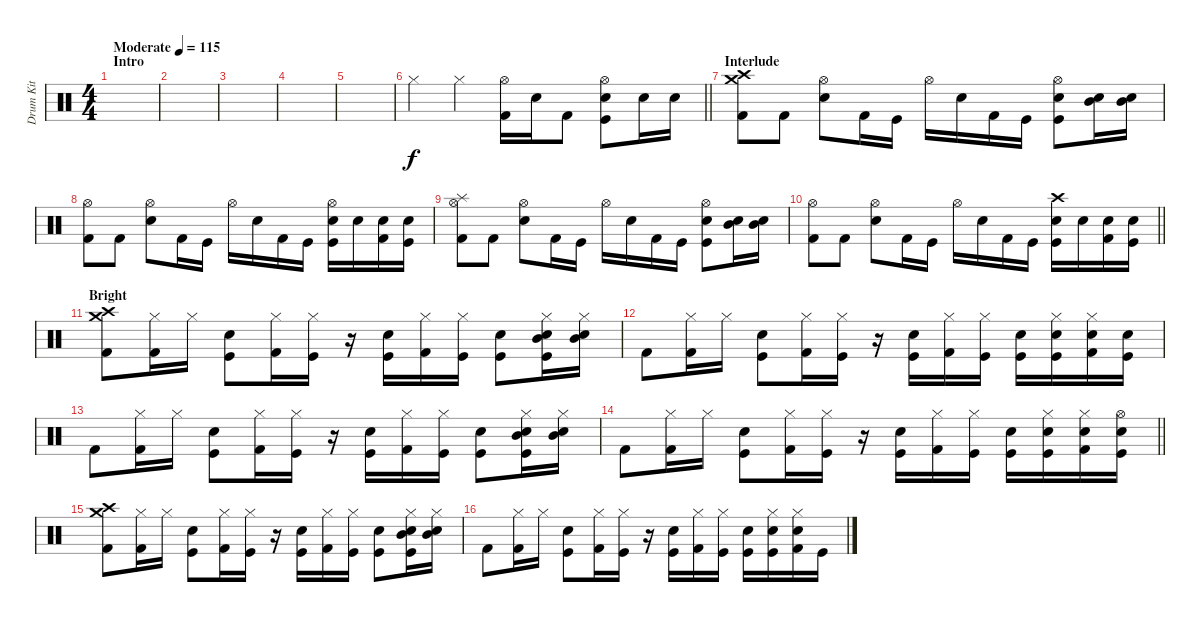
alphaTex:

\track ("Drum Kit " "Drum Kit ") {instrument percussion}
\staff {score}
\articulation defaults
\ts (4 4)
\section ("" "Intro ")
\tempo (115 "Moderate")
\clef neutral
\ks c
|
|
|
|
|
\barLineRight lightlight "Hi-Hat (closed)".4 "Hi-Hat (closed)".4
("Hi-Hat (open)" "Kick (hit) 2").16 "Electric Snare (hit)".16 "Kick (hit) 2".8 ("Hi-Hat (open)" "Snare (hit) 2" "Kick (hit)").8 "Electric Snare (hit)".16 "Electric Snare (hit)".16 |
\section ("" "Interlude ")
("Crash high (hit)" "Crash medium (hit)" "Kick (hit) 2").8 "Kick (hit) 2".8 ("Hi-Hat (open)" "Electric Snare (hit)").8 "Kick (hit) 2".16 "Kick (hit)".16 "Hi-Hat (open)".16 "Electric Snare (hit)".16 "Kick (hit) 2".16 "Kick (hit)".16 ("Hi-Hat (open)" "Snare (hit) 2" "Kick (hit)").8 ("Mid Tom (hit)" "Electric Snare (hit)").16 ("Mid Tom (hit)" "Electric Snare (hit)").16 |
("Hi-Hat (open)" "Kick (hit) 2").8 "Kick (hit) 2".8 ("Hi-Hat (open)" "Electric Snare (hit)").8 "Kick (hit) 2".16 "Kick (hit)".16 "Hi-Hat (open)".16 "Electric Snare (hit)".16 "Kick (hit) 2".16 "Kick (hit)".16 ("Hi-Hat (open)" "Electric Snare (hit)" "Kick (hit)").16 "Electric Snare (hit)".16 ("Snare (hit) 2" "Kick (hit) 2").16 ("Snare (hit) 2" "Kick (hit)").16 |
("Hi-Hat (open)" "Splash (hit)" "Kick (hit) 2").8 "Kick (hit) 2".8 ("Hi-Hat (open)" "Electric Snare (hit)").8 "Kick (hit) 2".16 "Kick (hit)".16 "Hi-Hat (open)".16 "Electric Snare (hit)".16 "Kick (hit) 2".16 "Kick (hit)".16 ("Hi-Hat (open)" "Snare (hit) 2" "Kick (hit)").8 ("Mid Tom (hit)" "Electric Snare (hit)").16 ("Mid Tom (hit)" "Electric Snare (hit)").16 |
\barLineRight lightlight
("Hi-Hat (open)" "Kick (hit) 2").8 "Kick (hit) 2".8 ("Hi-Hat (open)" "Electric Snare (hit)").8 "Kick (hit) 2".16 "Kick (hit)".16 "Hi-Hat (open)".16 "Electric Snare (hit)".16 "Kick (hit) 2".16 "Kick (hit)".16 ("Crash high (hit)" "Electric Snare (hit)" "Kick (hit)").16 "Electric Snare (hit)".16 ("Snare (hit) 2" "Kick (hit) 2").16 ("Snare (hit) 2" "Kick (hit)").16 |
\section ("" "Bright ")
("Crash medium (hit)" "Crash high (hit)" "Kick (hit) 2").8 ("Hi-Hat (closed)" "Kick (hit) 2").16 "Hi-Hat (closed)".16 ("Electric Snare (hit)" "Kick (hit)").8 ("Hi-Hat (closed)" "Kick (hit) 2").16 ("Hi-Hat (closed)" "Kick (hit)").16 r.16 ("Electric Snare (hit)" "Kick (hit)").16 ("Hi-Hat (closed)" "Kick (hit) 2").16 ("Hi-Hat (closed)" "Kick (hit)").16 ("Snare (hit) 2" "Kick (hit)").8 ("Hi-Hat (closed)" "Mid Tom (hit)" "Electric Snare (hit)" "Kick (hit)").16 ("Hi-Hat (closed)" "Mid Tom (hit)" "Electric Snare (hit)").16 |
"Kick (hit) 2".8 ("Hi-Hat (closed)" "Kick (hit) 2").16 "Hi-Hat (closed)".16 ("Electric Snare (hit)" "Kick (hit)").8 ("Hi-Hat (closed)" "Kick (hit) 2").16 ("Hi-Hat (closed)" "Kick (hit)").16 r.16 ("Electric Snare (hit)" "Kick (hit)").16 ("Hi-Hat (closed)" "Kick (hit) 2").16 ("Hi-Hat (closed)" "Kick (hit)").16 ("Electric Snare (hit)" "Kick (hit)").16 ("Hi-Hat (closed)" "Electric Snare (hit)" "Kick (hit)").16 ("Hi-Hat (closed)" "Snare (hit) 2" "Kick (hit) 2").16 ("Snare (hit) 2" "Kick (hit)").16 |
"Kick (hit) 2".8 ("Hi-Hat (closed)" "Kick (hit) 2").16 "Hi-Hat (closed)".16 ("Electric Snare (hit)" "Kick (hit)").8 ("Hi-Hat (closed)" "Kick (hit) 2").16 ("Hi-Hat (closed)" "Kick (hit)").16 r.16 ("Electric Snare (hit)" "Kick (hit)").16 ("Hi-Hat (closed)" "Kick (hit) 2").16 ("Hi-Hat (closed)" "Kick (hit)").16 ("Snare (hit) 2" "Kick (hit)").8 ("Hi-Hat (closed)" "Mid Tom (hit)" "Electric Snare (hit)" "Kick (hit)").16 ("Hi-Hat (closed)" "Mid Tom (hit)" "Electric Snare (hit)").16 |
\barLineRight lightlight "Kick (hit) 2".8
("Hi-Hat (closed)" "Kick (hit) 2").16 "Hi-Hat (closed)".16 ("Electric Snare (hit)" "Kick (hit)").8 ("Hi-Hat (closed)" "Kick (hit) 2").16 ("Hi-Hat (closed)" "Kick (hit)").16 r.16 ("Electric Snare (hit)" "Kick (hit)").16 ("Hi-Hat (closed)" "Kick (hit) 2").16 ("Hi-Hat (closed)" "Kick (hit)").16 ("Electric Snare (hit)" "Kick (hit)").16 ("Hi-Hat (closed)" "Electric Snare (hit)" "Kick (hit)").16 ("Hi-Hat (closed)" "Snare (hit) 2" "Kick (hit) 2").16 ("Hi-Hat (open)" "Snare (hit) 2" "Kick (hit)").16 |
("Crash medium (hit)" "Crash high (hit)" "Kick (hit) 2").8 ("Hi-Hat (closed)" "Kick (hit) 2").16 "Hi-Hat (closed)".16 ("Electric Snare (hit)" "Kick (hit)").8 ("Hi-Hat (closed)" "Kick (hit) 2").16 ("Hi-Hat (closed)" "Kick (hit)").16 r.16 ("Electric Snare (hit)" "Kick (hit)").16 ("Hi-Hat (closed)" "Kick (hit) 2").16 ("Hi-Hat (closed)" "Kick (hit)").16 ("Snare (hit) 2" "Kick (hit)").8 ("Hi-Hat (closed)" "Mid Tom (hit)" "Electric Snare (hit)" "Kick (hit)").16 ("Hi-Hat (closed)" "Mid Tom (hit)" "Electric Snare (hit)").16 |
"Kick (hit) 2".8 ("Hi-Hat (closed)" "Kick (hit) 2").16 "Hi-Hat (closed)".16 ("Electric Snare (hit)" "Kick (hit)").8 ("Hi-Hat (closed)" "Kick (hit) 2").16 ("Hi-Hat (closed)" "Kick (hit)").16 r.16 ("Electric Snare (hit)" "Kick (hit)").16 ("Hi-Hat (closed)" "Kick (hit) 2").16 ("Hi-Hat (closed)" "Kick (hit)").16 ("Electric Snare (hit)" "Kick (hit)").16 ("Hi-Hat (closed)" "Snare (hit) 2" "Kick (hit)").16 ("Hi-Hat (closed)" "Snare (hit) 2" "Kick (hit) 2").16 "Kick (hit)".16
